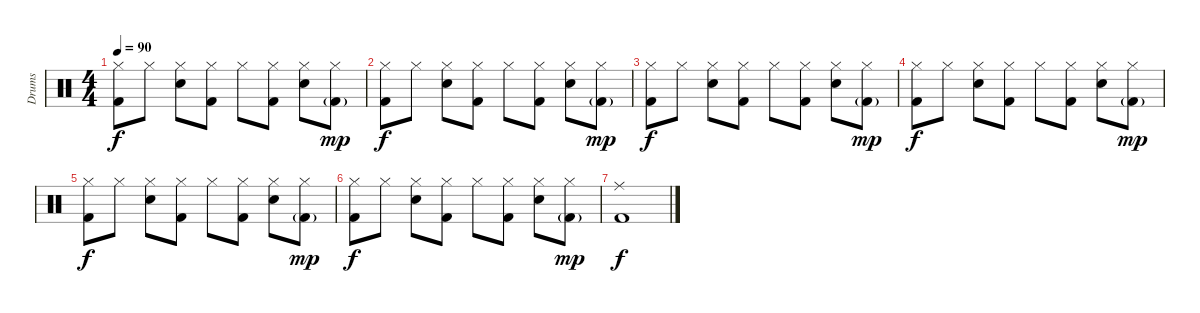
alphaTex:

\track ("Drums" "Drums") {instrument percussion}
\staff {score}
\articulation defaults
\ts (4 4)
\tempo 90
\clef neutral
\ks c
("Hi-Hat (closed)" "Kick (hit) 2").8{dy f} "Hi-Hat (closed)".8 ("Hi-Hat (closed)" "Snare (hit) 2").8 ("Hi-Hat (closed)" "Kick (hit) 2").8 "Hi-Hat (closed)".8 ("Hi-Hat (closed)" "Kick (hit) 2").8 ("Hi-Hat (closed)" "Snare (hit) 2").8 ("Hi-Hat (closed)" "Kick (hit) 2"{g}).8{dy mp} |
("Hi-Hat (closed)" "Kick (hit) 2").8{dy f} "Hi-Hat (closed)".8 ("Hi-Hat (closed)" "Snare (hit) 2").8 ("Hi-Hat (closed)" "Kick (hit) 2").8 "Hi-Hat (closed)".8 ("Hi-Hat (closed)" "Kick (hit) 2").8 ("Hi-Hat (closed)" "Snare (hit) 2").8 ("Hi-Hat (closed)" "Kick (hit) 2"{g}).8{dy mp} |
("Hi-Hat (closed)" "Kick (hit) 2").8{dy f} "Hi-Hat (closed)".8 ("Hi-Hat (closed)" "Snare (hit) 2").8 ("Hi-Hat (closed)" "Kick (hit) 2").8 "Hi-Hat (closed)".8 ("Hi-Hat (closed)" "Kick (hit) 2").8 ("Hi-Hat (closed)" "Snare (hit) 2").8 ("Hi-Hat (closed)" "Kick (hit) 2"{g}).8{dy mp} |
("Hi-Hat (closed)" "Kick (hit) 2").8{dy f} "Hi-Hat (closed)".8 ("Hi-Hat (closed)" "Snare (hit) 2").8 ("Hi-Hat (closed)" "Kick (hit) 2").8 "Hi-Hat (closed)".8 ("Hi-Hat (closed)" "Kick (hit) 2").8 ("Hi-Hat (closed)" "Snare (hit) 2").8 ("Hi-Hat (closed)" "Kick (hit) 2"{g}).8{dy mp} |
("Hi-Hat (closed)" "Kick (hit) 2").8{dy f} "Hi-Hat (closed)".8 ("Hi-Hat (closed)" "Snare (hit) 2").8 ("Hi-Hat (closed)" "Kick (hit) 2").8 "Hi-Hat (closed)".8 ("Hi-Hat (closed)" "Kick (hit) 2").8 ("Hi-Hat (closed)" "Snare (hit) 2").8 ("Hi-Hat (closed)" "Kick (hit) 2"{g}).8{dy mp} |
("Hi-Hat (closed)" "Kick (hit) 2").8{dy f} "Hi-Hat (closed)".8 ("Hi-Hat (closed)" "Snare (hit) 2").8 ("Hi-Hat (closed)" "Kick (hit) 2").8 "Hi-Hat (closed)".8 ("Hi-Hat (closed)" "Kick (hit) 2").8 ("Hi-Hat (closed)" "Snare (hit) 2").8 ("Hi-Hat (closed)" "Kick (hit) 2"{g}).8{dy mp} |
("Ride (middle)" "Kick (hit) 2").1{dy f}
